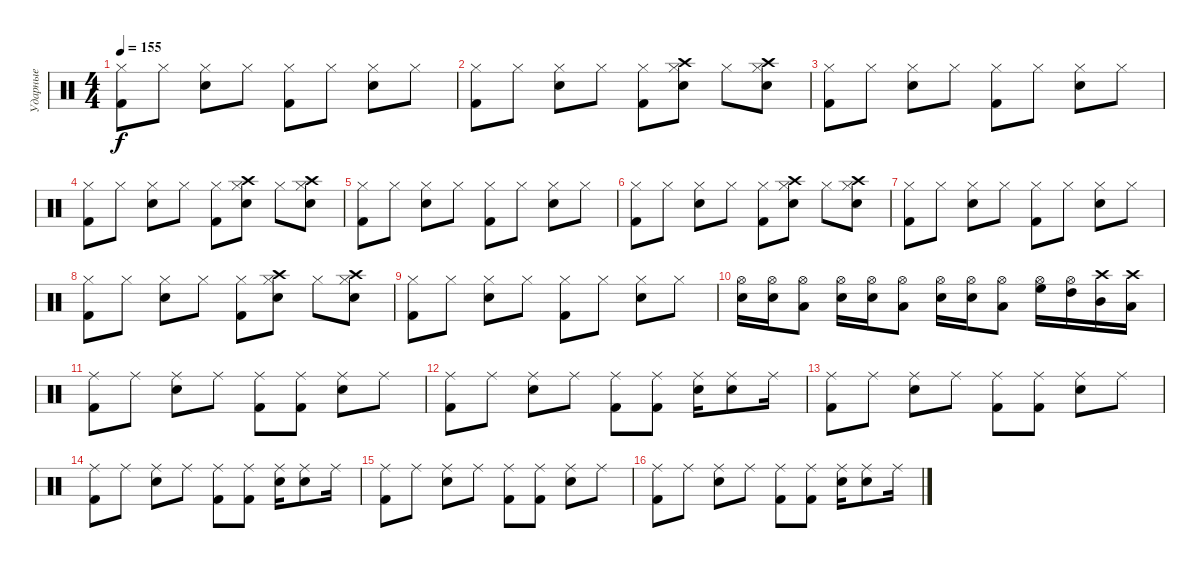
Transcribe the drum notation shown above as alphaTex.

\track ("Ударные" "Ударные") {solo instrument percussion}
\staff {score}
\articulation defaults
\ts (4 4)
\tempo 155
\clef neutral
\ks c
("Hi-Hat (closed)" "Kick (hit) 2").8{dy f} "Hi-Hat (closed)".8 ("Hi-Hat (closed)" "Snare (hit) 2").8 "Hi-Hat (closed)".8 ("Hi-Hat (closed)" "Kick (hit) 2").8 "Hi-Hat (closed)".8 ("Hi-Hat (closed)" "Snare (hit) 2").8 "Hi-Hat (closed)".8 |
("Hi-Hat (closed)" "Kick (hit) 2").8 "Hi-Hat (closed)".8 ("Hi-Hat (closed)" "Snare (hit) 2").8 "Hi-Hat (closed)".8 ("Hi-Hat (closed)" "Kick (hit) 2").8 ("Hi-Hat (closed)" "Snare (hit) 2" "Crash high (hit)").8 "Hi-Hat (closed)".8 ("Hi-Hat (closed)" "Snare (hit) 2" "Crash high (hit)").8 |
("Hi-Hat (closed)" "Kick (hit) 2").8 "Hi-Hat (closed)".8 ("Hi-Hat (closed)" "Snare (hit) 2").8 "Hi-Hat (closed)".8 ("Hi-Hat (closed)" "Kick (hit) 2").8 "Hi-Hat (closed)".8 ("Hi-Hat (closed)" "Snare (hit) 2").8 "Hi-Hat (closed)".8 |
("Hi-Hat (closed)" "Kick (hit) 2").8 "Hi-Hat (closed)".8 ("Hi-Hat (closed)" "Snare (hit) 2").8 "Hi-Hat (closed)".8 ("Hi-Hat (closed)" "Kick (hit) 2").8 ("Hi-Hat (closed)" "Snare (hit) 2" "Crash high (hit)").8 "Hi-Hat (closed)".8 ("Hi-Hat (closed)" "Snare (hit) 2" "Crash high (hit)").8 |
("Hi-Hat (closed)" "Kick (hit) 2").8 "Hi-Hat (closed)".8 ("Hi-Hat (closed)" "Snare (hit) 2").8 "Hi-Hat (closed)".8 ("Hi-Hat (closed)" "Kick (hit) 2").8 "Hi-Hat (closed)".8 ("Hi-Hat (closed)" "Snare (hit) 2").8 "Hi-Hat (closed)".8 |
("Hi-Hat (closed)" "Kick (hit) 2").8 "Hi-Hat (closed)".8 ("Hi-Hat (closed)" "Snare (hit) 2").8 "Hi-Hat (closed)".8 ("Hi-Hat (closed)" "Kick (hit) 2").8 ("Hi-Hat (closed)" "Snare (hit) 2" "Crash high (hit)").8 "Hi-Hat (closed)".8 ("Hi-Hat (closed)" "Snare (hit) 2" "Crash high (hit)").8 |
("Hi-Hat (closed)" "Kick (hit) 2").8 "Hi-Hat (closed)".8 ("Hi-Hat (closed)" "Snare (hit) 2").8 "Hi-Hat (closed)".8 ("Hi-Hat (closed)" "Kick (hit) 2").8 "Hi-Hat (closed)".8 ("Hi-Hat (closed)" "Snare (hit) 2").8 "Hi-Hat (closed)".8 |
("Hi-Hat (closed)" "Kick (hit) 2").8 "Hi-Hat (closed)".8 ("Hi-Hat (closed)" "Snare (hit) 2").8 "Hi-Hat (closed)".8 ("Hi-Hat (closed)" "Kick (hit) 2").8 ("Hi-Hat (closed)" "Snare (hit) 2" "Crash high (hit)").8 "Hi-Hat (closed)".8 ("Hi-Hat (closed)" "Snare (hit) 2" "Crash high (hit)").8 |
("Hi-Hat (closed)" "Kick (hit) 2").8 "Hi-Hat (closed)".8 ("Hi-Hat (closed)" "Snare (hit) 2").8 "Hi-Hat (closed)".8 ("Hi-Hat (closed)" "Kick (hit) 2").8 "Hi-Hat (closed)".8 ("Hi-Hat (closed)" "Snare (hit) 2").8 "Hi-Hat (closed)".8 |
("Electric Snare (hit)" "Hi-Hat (open)").16 ("Snare (hit) 2" "Hi-Hat (open)").16 ("Low Tom (hit)" "Hi-Hat (open)").8 ("Electric Snare (hit)" "Hi-Hat (open)").16 ("Snare (hit) 2" "Hi-Hat (open)").16 ("Low Tom (hit)" "Hi-Hat (open)").8 ("Electric Snare (hit)" "Hi-Hat (open)").16 ("Snare (hit) 2" "Hi-Hat (open)").16 ("Low Tom (hit)" "Hi-Hat (open)").8 ("High Floor Tom (hit)" "Hi-Hat (open)").16 ("High Tom (hit)" "Hi-Hat (open)").16 ("Mid Tom (hit)" "Crash high (hit)").16 ("Low Tom (hit)" "Crash high (hit)").16 |
("Ride (middle)" "Kick (hit) 2").8 "Ride (middle)".8 ("Ride (middle)" "Snare (hit) 2").8 "Ride (middle)".8 ("Ride (middle)" "Kick (hit) 2").8 ("Ride (middle)" "Kick (hit) 2").8 ("Ride (middle)" "Snare (hit) 2").8 "Ride (middle)".8 |
("Ride (middle)" "Kick (hit) 2").8 "Ride (middle)".8 ("Ride (middle)" "Snare (hit) 2").8 "Ride (middle)".8 ("Ride (middle)" "Kick (hit) 2").8 ("Ride (middle)" "Kick (hit) 2").8 ("Ride (middle)" "Snare (hit) 2").16 ("Ride (middle)" "Snare (hit) 2").8 "Ride (middle)".16 |
("Ride (middle)" "Kick (hit) 2").8 "Ride (middle)".8 ("Ride (middle)" "Snare (hit) 2").8 "Ride (middle)".8 ("Ride (middle)" "Kick (hit) 2").8 ("Ride (middle)" "Kick (hit) 2").8 ("Ride (middle)" "Snare (hit) 2").8 "Ride (middle)".8 |
("Ride (middle)" "Kick (hit) 2").8 "Ride (middle)".8 ("Ride (middle)" "Snare (hit) 2").8 "Ride (middle)".8 ("Ride (middle)" "Kick (hit) 2").8 ("Ride (middle)" "Kick (hit) 2").8 ("Ride (middle)" "Snare (hit) 2").16 ("Ride (middle)" "Snare (hit) 2").8 "Ride (middle)".16 |
("Ride (middle)" "Kick (hit) 2").8 "Ride (middle)".8 ("Ride (middle)" "Snare (hit) 2").8 "Ride (middle)".8 ("Ride (middle)" "Kick (hit) 2").8 ("Ride (middle)" "Kick (hit) 2").8 ("Ride (middle)" "Snare (hit) 2").8 "Ride (middle)".8 |
("Ride (middle)" "Kick (hit) 2").8 "Ride (middle)".8 ("Ride (middle)" "Snare (hit) 2").8 "Ride (middle)".8 ("Ride (middle)" "Kick (hit) 2").8 ("Ride (middle)" "Kick (hit) 2").8 ("Ride (middle)" "Snare (hit) 2").16 ("Ride (middle)" "Snare (hit) 2").8 "Ride (middle)".16
